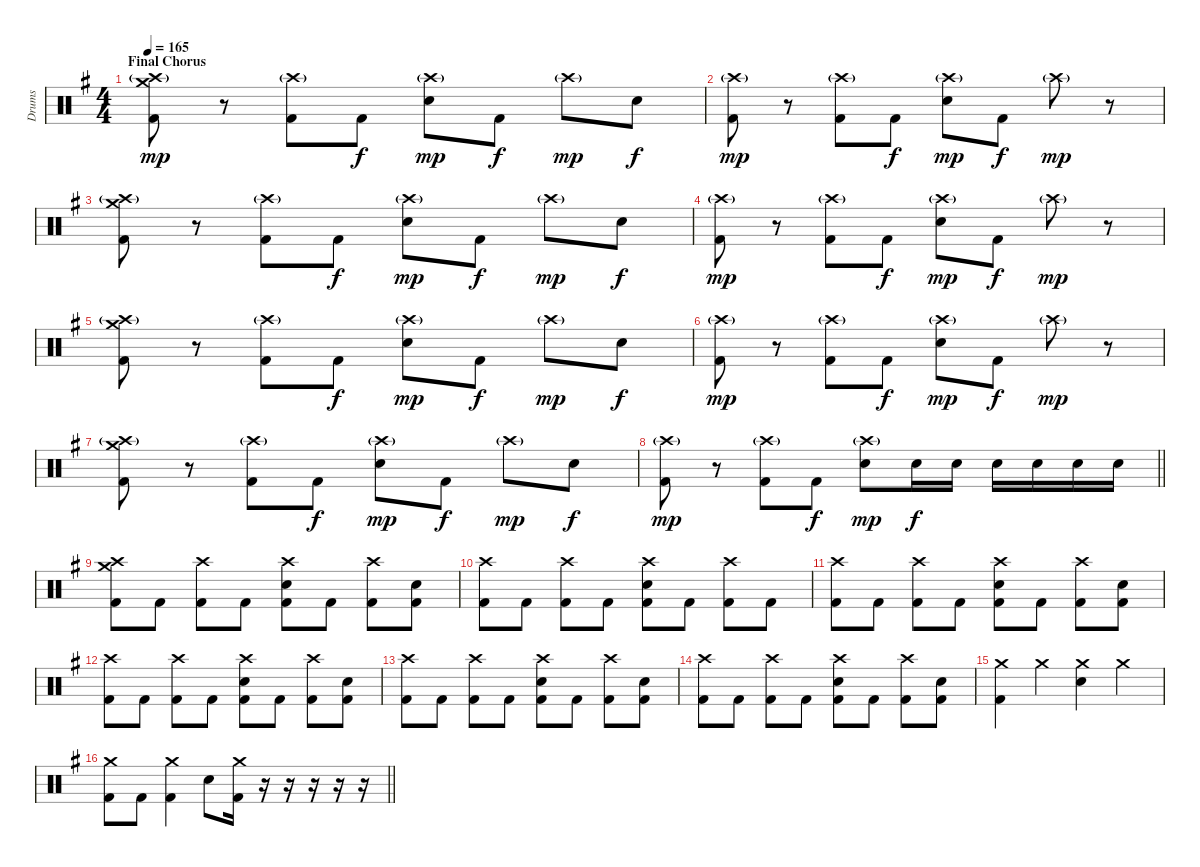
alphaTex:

\track ("Drums" "Drums") {instrument percussion}
\staff {score}
\articulation defaults
\ts (4 4)
\section ("" "Final Chorus")
\tempo 165
\clef neutral
\ks eminor
("Crash high (hit)"{g} "Crash medium (hit)" "Kick (hit) 2").8{dy mp} r.8 ("Crash high (hit)"{g} "Kick (hit) 2").8 "Kick (hit) 2".8{dy f} ("Crash high (hit)"{g} "Electric Snare (hit)").8{dy mp} "Kick (hit) 2".8{dy f} "Crash high (hit)"{g}.8{dy mp} "Electric Snare (hit)".8{dy f} |
("Crash high (hit)"{g} "Kick (hit) 2").8{dy mp} r.8 ("Crash high (hit)"{g} "Kick (hit) 2").8 "Kick (hit) 2".8{dy f} ("Crash high (hit)"{g} "Electric Snare (hit)").8{dy mp} "Kick (hit) 2".8{dy f} "Crash high (hit)"{g}.8{dy mp} r.8 |
("Crash high (hit)"{g} "Crash medium (hit)" "Kick (hit) 2").8 r.8 ("Crash high (hit)"{g} "Kick (hit) 2").8 "Kick (hit) 2".8{dy f} ("Crash high (hit)"{g} "Electric Snare (hit)").8{dy mp} "Kick (hit) 2".8{dy f} "Crash high (hit)"{g}.8{dy mp} "Electric Snare (hit)".8{dy f} |
("Crash high (hit)"{g} "Kick (hit) 2").8{dy mp} r.8 ("Crash high (hit)"{g} "Kick (hit) 2").8 "Kick (hit) 2".8{dy f} ("Crash high (hit)"{g} "Electric Snare (hit)").8{dy mp} "Kick (hit) 2".8{dy f} "Crash high (hit)"{g}.8{dy mp} r.8 |
("Crash high (hit)"{g} "Crash medium (hit)" "Kick (hit) 2").8 r.8 ("Crash high (hit)"{g} "Kick (hit) 2").8 "Kick (hit) 2".8{dy f} ("Crash high (hit)"{g} "Electric Snare (hit)").8{dy mp} "Kick (hit) 2".8{dy f} "Crash high (hit)"{g}.8{dy mp} "Electric Snare (hit)".8{dy f} |
("Crash high (hit)"{g} "Kick (hit) 2").8{dy mp} r.8 ("Crash high (hit)"{g} "Kick (hit) 2").8 "Kick (hit) 2".8{dy f} ("Crash high (hit)"{g} "Electric Snare (hit)").8{dy mp} "Kick (hit) 2".8{dy f} "Crash high (hit)"{g}.8{dy mp} r.8 |
("Crash high (hit)"{g} "Crash medium (hit)" "Kick (hit) 2").8 r.8 ("Crash high (hit)"{g} "Kick (hit) 2").8 "Kick (hit) 2".8{dy f} ("Crash high (hit)"{g} "Electric Snare (hit)").8{dy mp} "Kick (hit) 2".8{dy f} "Crash high (hit)"{g}.8{dy mp} "Electric Snare (hit)".8{dy f} |
\barLineRight lightlight
("Crash high (hit)"{g} "Kick (hit) 2").8{dy mp} r.8 ("Crash high (hit)"{g} "Kick (hit) 2").8 "Kick (hit) 2".8{dy f} ("Crash high (hit)"{g} "Electric Snare (hit)").8{dy mp} "Electric Snare (hit)".16{dy f} "Electric Snare (hit)".16 "Electric Snare (hit)".16 "Electric Snare (hit)".16 "Electric Snare (hit)".16 "Electric Snare (hit)".16 |
("Crash medium (hit)" "Crash high (hit)" "Kick (hit) 2").8 "Kick (hit) 2".8 ("Crash high (hit)" "Kick (hit) 2").8 "Kick (hit) 2".8 ("Crash high (hit)" "Electric Snare (hit)" "Kick (hit) 2").8 "Kick (hit) 2".8 ("Crash high (hit)" "Kick (hit) 2").8 ("Electric Snare (hit)" "Kick (hit) 2").8 |
("Crash high (hit)" "Kick (hit) 2").8 "Kick (hit) 2".8 ("Crash high (hit)" "Kick (hit) 2").8 "Kick (hit) 2".8 ("Crash high (hit)" "Electric Snare (hit)" "Kick (hit) 2").8 "Kick (hit) 2".8 ("Crash high (hit)" "Kick (hit) 2").8 "Kick (hit) 2".8 |
("Crash high (hit)" "Kick (hit) 2").8 "Kick (hit) 2".8 ("Crash high (hit)" "Kick (hit) 2").8 "Kick (hit) 2".8 ("Crash high (hit)" "Electric Snare (hit)" "Kick (hit) 2").8 "Kick (hit) 2".8 ("Crash high (hit)" "Kick (hit) 2").8 ("Electric Snare (hit)" "Kick (hit) 2").8 |
("Crash high (hit)" "Kick (hit) 2").8 "Kick (hit) 2".8 ("Crash high (hit)" "Kick (hit) 2").8 "Kick (hit) 2".8 ("Crash high (hit)" "Electric Snare (hit)" "Kick (hit) 2").8 "Kick (hit) 2".8 ("Crash high (hit)" "Kick (hit) 2").8 ("Electric Snare (hit)" "Kick (hit) 2").8 |
("Crash high (hit)" "Kick (hit) 2").8 "Kick (hit) 2".8 ("Crash high (hit)" "Kick (hit) 2").8 "Kick (hit) 2".8 ("Crash high (hit)" "Electric Snare (hit)" "Kick (hit) 2").8 "Kick (hit) 2".8 ("Crash high (hit)" "Kick (hit) 2").8 ("Electric Snare (hit)" "Kick (hit) 2").8 |
("Crash high (hit)" "Kick (hit) 2").8 "Kick (hit) 2".8 ("Crash high (hit)" "Kick (hit) 2").8 "Kick (hit) 2".8 ("Crash high (hit)" "Electric Snare (hit)" "Kick (hit) 2").8 "Kick (hit) 2".8 ("Crash high (hit)" "Kick (hit) 2").8 ("Electric Snare (hit)" "Kick (hit) 2").8 |
("Crash medium (hit)" "Kick (hit) 2").4 "Crash medium (hit)".4 ("Crash medium (hit)" "Electric Snare (hit)").4 "Crash medium (hit)".4 |
\barLineRight lightlight
("Crash medium (hit)" "Kick (hit) 2").8 "Kick (hit) 2".8 ("Crash medium (hit)" "Kick (hit) 2").4 "Electric Snare (hit)".8 ("Crash medium (hit)" "Kick (hit) 2").16 r.16 r.16 r.16 r.16 r.16
